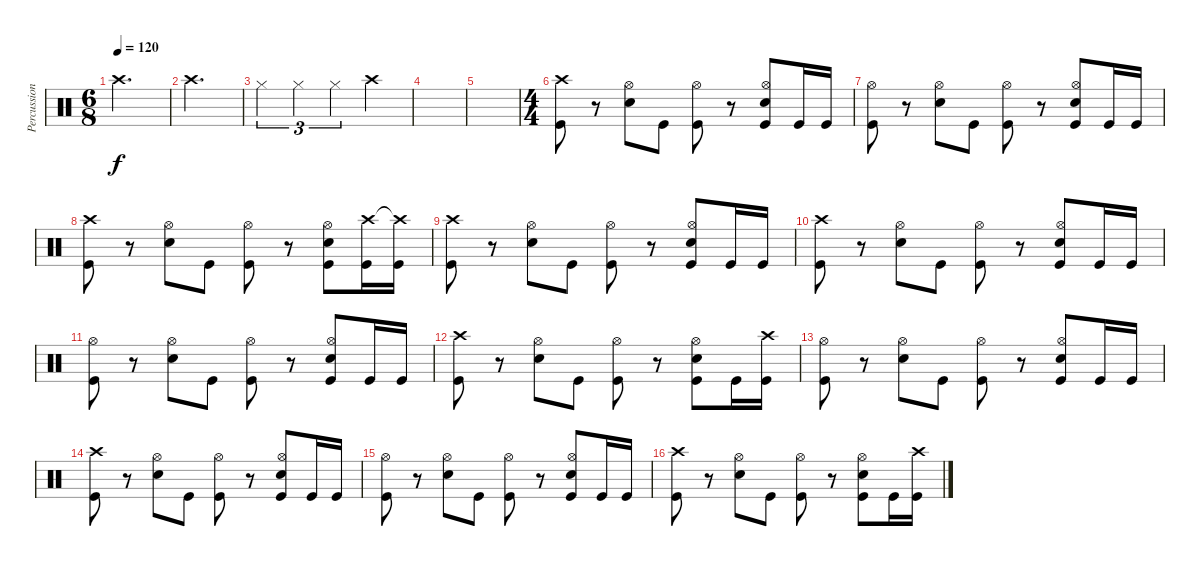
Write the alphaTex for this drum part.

\track ("Percussion" "Percussion") {instrument percussion}
\staff {score}
\articulation defaults
\ts (6 8)
\tempo 120
\clef neutral
\ks c "Crash high (hit)".2{d dy f}
|
"Crash high (hit)".2{d} |
"Hi-Hat (closed)".4{tu (3 2)} "Hi-Hat (closed)".4{tu (3 2)} "Hi-Hat (closed)".4{tu (3 2)} "Crash high (hit)".4 |
|
|
\ts (4 4)
("Kick (hit)" "Crash high (hit)").8 r.8 ("Hi-Hat (open)" "Snare (hit) 2").8 "Kick (hit)".8 ("Kick (hit)" "Hi-Hat (open)").8 r.8 ("Kick (hit)" "Hi-Hat (open)" "Snare (hit) 2").8 "Kick (hit)".16 "Kick (hit)".16 |
("Kick (hit)" "Hi-Hat (open)").8 r.8 ("Hi-Hat (open)" "Snare (hit) 2").8 "Kick (hit)".8 ("Kick (hit)" "Hi-Hat (open)").8 r.8 ("Kick (hit)" "Hi-Hat (open)" "Snare (hit) 2").8 "Kick (hit)".16 "Kick (hit)".16 |
("Kick (hit)" "Crash high (hit)").8 r.8 ("Hi-Hat (open)" "Snare (hit) 2").8 "Kick (hit)".8 ("Kick (hit)" "Hi-Hat (open)").8 r.8 ("Kick (hit)" "Hi-Hat (open)" "Snare (hit) 2").8 ("Kick (hit)" "Crash high (hit)").16 ("Kick (hit)" "Crash high (hit)"{t}).16 |
("Kick (hit)" "Crash high (hit)").8 r.8 ("Hi-Hat (open)" "Snare (hit) 2").8 "Kick (hit)".8 ("Kick (hit)" "Hi-Hat (open)").8 r.8 ("Kick (hit)" "Hi-Hat (open)" "Snare (hit) 2").8 "Kick (hit)".16 "Kick (hit)".16 |
("Kick (hit)" "Crash high (hit)").8 r.8 ("Hi-Hat (open)" "Snare (hit) 2").8 "Kick (hit)".8 ("Kick (hit)" "Hi-Hat (open)").8 r.8 ("Kick (hit)" "Hi-Hat (open)" "Snare (hit) 2").8 "Kick (hit)".16 "Kick (hit)".16 |
("Kick (hit)" "Hi-Hat (open)").8 r.8 ("Hi-Hat (open)" "Snare (hit) 2").8 "Kick (hit)".8 ("Kick (hit)" "Hi-Hat (open)").8 r.8 ("Kick (hit)" "Hi-Hat (open)" "Snare (hit) 2").8 "Kick (hit)".16 "Kick (hit)".16 |
("Kick (hit)" "Crash high (hit)").8 r.8 ("Hi-Hat (open)" "Snare (hit) 2").8 "Kick (hit)".8 ("Kick (hit)" "Hi-Hat (open)").8 r.8 ("Kick (hit)" "Hi-Hat (open)" "Snare (hit) 2").8 "Kick (hit)".16 ("Kick (hit)" "Crash high (hit)").16 |
("Kick (hit)" "Hi-Hat (open)").8 r.8 ("Hi-Hat (open)" "Snare (hit) 2").8 "Kick (hit)".8 ("Kick (hit)" "Hi-Hat (open)").8 r.8 ("Kick (hit)" "Hi-Hat (open)" "Snare (hit) 2").8 "Kick (hit)".16 "Kick (hit)".16 |
("Kick (hit)" "Crash high (hit)").8 r.8 ("Hi-Hat (open)" "Snare (hit) 2").8 "Kick (hit)".8 ("Kick (hit)" "Hi-Hat (open)").8 r.8 ("Kick (hit)" "Hi-Hat (open)" "Snare (hit) 2").8 "Kick (hit)".16 "Kick (hit)".16 |
("Kick (hit)" "Hi-Hat (open)").8 r.8 ("Hi-Hat (open)" "Snare (hit) 2").8 "Kick (hit)".8 ("Kick (hit)" "Hi-Hat (open)").8 r.8 ("Kick (hit)" "Hi-Hat (open)" "Snare (hit) 2").8 "Kick (hit)".16 "Kick (hit)".16 |
("Kick (hit)" "Crash high (hit)").8 r.8 ("Hi-Hat (open)" "Snare (hit) 2").8 "Kick (hit)".8 ("Kick (hit)" "Hi-Hat (open)").8 r.8 ("Kick (hit)" "Hi-Hat (open)" "Snare (hit) 2").8 "Kick (hit)".16 ("Kick (hit)" "Crash high (hit)").16
